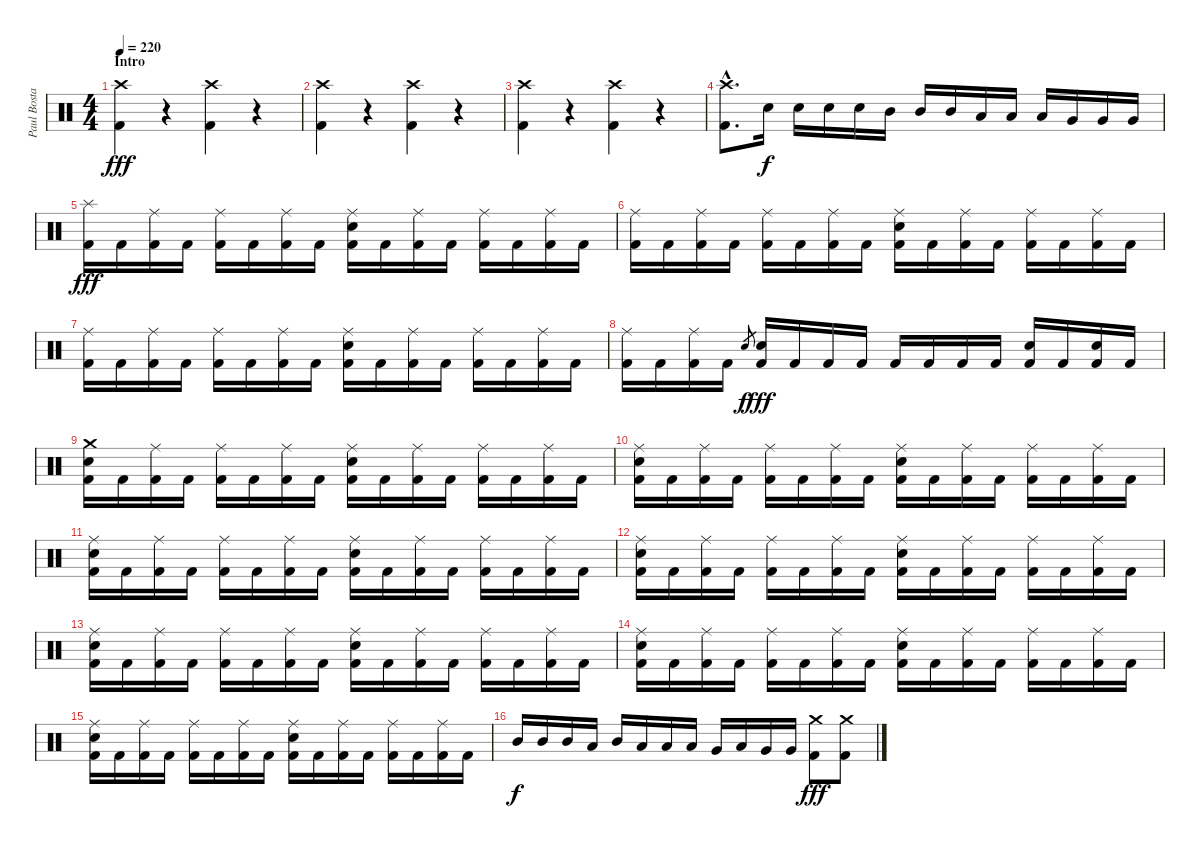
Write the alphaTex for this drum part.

\track ("Paul Bostaph" "Paul Bosta") {instrument percussion}
\staff {score}
\articulation defaults
\ts (4 4)
\section ("" "Intro")
\tempo 220
\clef neutral
\ks c
("Crash high (hit)" "Kick (hit) 2").4{dy fff} r.4 ("Crash high (hit)" "Kick (hit) 2").4 r.4 |
("Crash high (hit)" "Kick (hit) 2").4 r.4 ("Crash high (hit)" "Kick (hit) 2").4 r.4 |
("Crash high (hit)" "Kick (hit) 2").4 r.4 ("Crash high (hit)" "Kick (hit) 2").4 r.4 |
("Crash high (hit)"{hac} "Kick (hit) 2"{hac}).8{d} "Snare (hit) 2".16{dy f} "Snare (hit) 2".16 "Snare (hit) 2".16 "Snare (hit) 2".16 "Mid Tom (hit)".16 "Mid Tom (hit)".16 "Mid Tom (hit)".16 "Low Tom (hit)".16 "Low Tom (hit)".16 "Low Tom (hit)".16 "Very Low Tom (hit)".16 "Very Low Tom (hit)".16 "Very Low Tom (hit)".16 |
("Splash (hit)" "Kick (hit) 2").16{dy fff} "Kick (hit) 2".16 ("Ride (middle)" "Kick (hit) 2").16 "Kick (hit) 2".16 ("Ride (middle)" "Kick (hit) 2").16 "Kick (hit) 2".16 ("Ride (middle)" "Kick (hit) 2").16 "Kick (hit) 2".16 ("Ride (middle)" "Snare (hit) 2" "Kick (hit) 2").16 "Kick (hit) 2".16 ("Ride (middle)" "Kick (hit) 2").16 "Kick (hit) 2".16 ("Ride (middle)" "Kick (hit) 2").16 "Kick (hit) 2".16 ("Ride (middle)" "Kick (hit) 2").16 "Kick (hit) 2".16 |
("Ride (middle)" "Kick (hit) 2").16 "Kick (hit) 2".16 ("Ride (middle)" "Kick (hit) 2").16 "Kick (hit) 2".16 ("Ride (middle)" "Kick (hit) 2").16 "Kick (hit) 2".16 ("Ride (middle)" "Kick (hit) 2").16 "Kick (hit) 2".16 ("Ride (middle)" "Snare (hit) 2" "Kick (hit) 2").16 "Kick (hit) 2".16 ("Ride (middle)" "Kick (hit) 2").16 "Kick (hit) 2".16 ("Ride (middle)" "Kick (hit) 2").16 "Kick (hit) 2".16 ("Ride (middle)" "Kick (hit) 2").16 "Kick (hit) 2".16 |
("Ride (middle)" "Kick (hit) 2").16 "Kick (hit) 2".16 ("Ride (middle)" "Kick (hit) 2").16 "Kick (hit) 2".16 ("Ride (middle)" "Kick (hit) 2").16 "Kick (hit) 2".16 ("Ride (middle)" "Kick (hit) 2").16 "Kick (hit) 2".16 ("Ride (middle)" "Snare (hit) 2" "Kick (hit) 2").16 "Kick (hit) 2".16 ("Ride (middle)" "Kick (hit) 2").16 "Kick (hit) 2".16 ("Ride (middle)" "Kick (hit) 2").16 "Kick (hit) 2".16 ("Ride (middle)" "Kick (hit) 2").16 "Kick (hit) 2".16 |
("Ride (middle)" "Kick (hit) 2").16 "Kick (hit) 2".16 ("Ride (middle)" "Kick (hit) 2").16 "Kick (hit) 2".16 "Snare (hit) 2".8{gr dy f} ("Snare (hit) 2" "Kick (hit) 2").16{dy fff} "Kick (hit) 2".16 "Kick (hit) 2".16 "Kick (hit) 2".16 "Kick (hit) 2".16 "Kick (hit) 2".16 "Kick (hit) 2".16 "Kick (hit) 2".16 ("Snare (hit) 2" "Kick (hit) 2").16 "Kick (hit) 2".16 ("Snare (hit) 2" "Kick (hit) 2").16 "Kick (hit) 2".16 |
("Crash medium (hit)" "Snare (hit) 2" "Kick (hit) 2").16 "Kick (hit) 2".16 ("Ride (middle)" "Kick (hit) 2").16 "Kick (hit) 2".16 ("Ride (middle)" "Kick (hit) 2").16 "Kick (hit) 2".16 ("Ride (middle)" "Kick (hit) 2").16 "Kick (hit) 2".16 ("Ride (middle)" "Snare (hit) 2" "Kick (hit) 2").16 "Kick (hit) 2".16 ("Ride (middle)" "Kick (hit) 2").16 "Kick (hit) 2".16 ("Ride (middle)" "Kick (hit) 2").16 "Kick (hit) 2".16 ("Ride (middle)" "Kick (hit) 2").16 "Kick (hit) 2".16 |
("Ride (middle)" "Snare (hit) 2" "Kick (hit) 2").16 "Kick (hit) 2".16 ("Ride (middle)" "Kick (hit) 2").16 "Kick (hit) 2".16 ("Ride (middle)" "Kick (hit) 2").16 "Kick (hit) 2".16 ("Ride (middle)" "Kick (hit) 2").16 "Kick (hit) 2".16 ("Ride (middle)" "Snare (hit) 2" "Kick (hit) 2").16 "Kick (hit) 2".16 ("Ride (middle)" "Kick (hit) 2").16 "Kick (hit) 2".16 ("Ride (middle)" "Kick (hit) 2").16 "Kick (hit) 2".16 ("Ride (middle)" "Kick (hit) 2").16 "Kick (hit) 2".16 |
("Ride (middle)" "Snare (hit) 2" "Kick (hit) 2").16 "Kick (hit) 2".16 ("Ride (middle)" "Kick (hit) 2").16 "Kick (hit) 2".16 ("Ride (middle)" "Kick (hit) 2").16 "Kick (hit) 2".16 ("Ride (middle)" "Kick (hit) 2").16 "Kick (hit) 2".16 ("Ride (middle)" "Snare (hit) 2" "Kick (hit) 2").16 "Kick (hit) 2".16 ("Ride (middle)" "Kick (hit) 2").16 "Kick (hit) 2".16 ("Ride (middle)" "Kick (hit) 2").16 "Kick (hit) 2".16 ("Ride (middle)" "Kick (hit) 2").16 "Kick (hit) 2".16 |
("Ride (middle)" "Snare (hit) 2" "Kick (hit) 2").16 "Kick (hit) 2".16 ("Ride (middle)" "Kick (hit) 2").16 "Kick (hit) 2".16 ("Ride (middle)" "Kick (hit) 2").16 "Kick (hit) 2".16 ("Ride (middle)" "Kick (hit) 2").16 "Kick (hit) 2".16 ("Ride (middle)" "Snare (hit) 2" "Kick (hit) 2").16 "Kick (hit) 2".16 ("Ride (middle)" "Kick (hit) 2").16 "Kick (hit) 2".16 ("Ride (middle)" "Kick (hit) 2").16 "Kick (hit) 2".16 ("Ride (middle)" "Kick (hit) 2").16 "Kick (hit) 2".16 |
("Ride (middle)" "Snare (hit) 2" "Kick (hit) 2").16 "Kick (hit) 2".16 ("Ride (middle)" "Kick (hit) 2").16 "Kick (hit) 2".16 ("Ride (middle)" "Kick (hit) 2").16 "Kick (hit) 2".16 ("Ride (middle)" "Kick (hit) 2").16 "Kick (hit) 2".16 ("Ride (middle)" "Snare (hit) 2" "Kick (hit) 2").16 "Kick (hit) 2".16 ("Ride (middle)" "Kick (hit) 2").16 "Kick (hit) 2".16 ("Ride (middle)" "Kick (hit) 2").16 "Kick (hit) 2".16 ("Ride (middle)" "Kick (hit) 2").16 "Kick (hit) 2".16 |
("Ride (middle)" "Snare (hit) 2" "Kick (hit) 2").16 "Kick (hit) 2".16 ("Ride (middle)" "Kick (hit) 2").16 "Kick (hit) 2".16 ("Ride (middle)" "Kick (hit) 2").16 "Kick (hit) 2".16 ("Ride (middle)" "Kick (hit) 2").16 "Kick (hit) 2".16 ("Ride (middle)" "Snare (hit) 2" "Kick (hit) 2").16 "Kick (hit) 2".16 ("Ride (middle)" "Kick (hit) 2").16 "Kick (hit) 2".16 ("Ride (middle)" "Kick (hit) 2").16 "Kick (hit) 2".16 ("Ride (middle)" "Kick (hit) 2").16 "Kick (hit) 2".16 |
("Ride (middle)" "Snare (hit) 2" "Kick (hit) 2").16 "Kick (hit) 2".16 ("Ride (middle)" "Kick (hit) 2").16 "Kick (hit) 2".16 ("Ride (middle)" "Kick (hit) 2").16 "Kick (hit) 2".16 ("Ride (middle)" "Kick (hit) 2").16 "Kick (hit) 2".16 ("Ride (middle)" "Snare (hit) 2" "Kick (hit) 2").16 "Kick (hit) 2".16 ("Ride (middle)" "Kick (hit) 2").16 "Kick (hit) 2".16 ("Ride (middle)" "Kick (hit) 2").16 "Kick (hit) 2".16 ("Ride (middle)" "Kick (hit) 2").16 "Kick (hit) 2".16 |
"Mid Tom (hit)".16{dy f} "Mid Tom (hit)".16 "Mid Tom (hit)".16 "Low Tom (hit)".16 "Mid Tom (hit)".16 "Low Tom (hit)".16 "Low Tom (hit)".16 "Low Tom (hit)".16 "Very Low Tom (hit)".16 "Low Tom (hit)".16 "Very Low Tom (hit)".16 "Very Low Tom (hit)".16 ("Crash medium (hit)" "Kick (hit) 2").8{dy fff} ("Crash medium (hit)" "Kick (hit) 2").8
